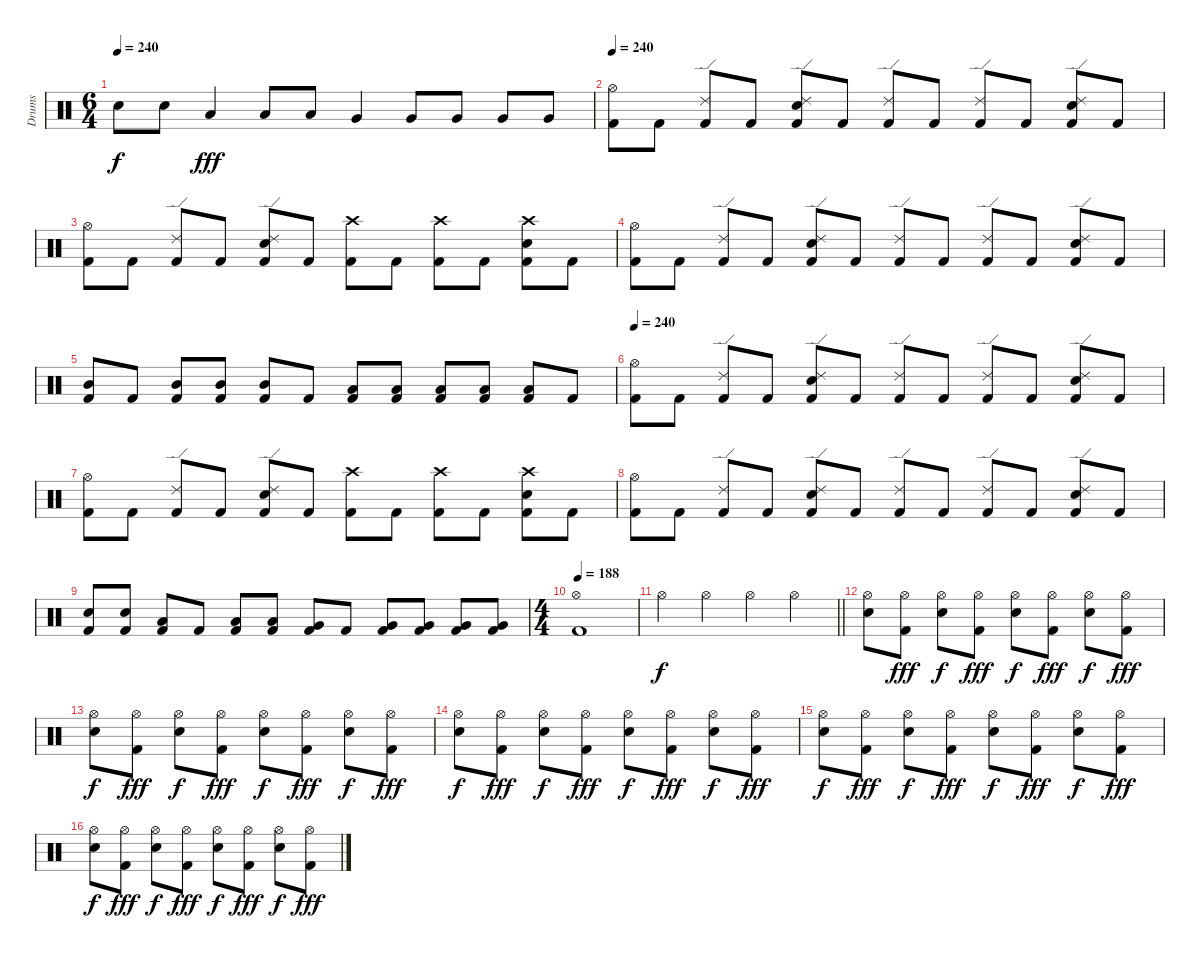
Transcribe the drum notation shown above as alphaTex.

\track ("Drums" "Drums") {instrument percussion}
\staff {score}
\articulation defaults
\ts (6 4)
\tempo 240
\clef neutral
\ks c "Electric Snare (hit)".8{dy f} "Electric Snare (hit)".8 "Low Tom (hit)".4{dy fff} "Low Tom (hit)".8 "Low Tom (hit)".8 "Very Low Tom (hit)".4 "Very Low Tom (hit)".8 "Very Low Tom (hit)".8 "Very Low Tom (hit)".8 "Very Low Tom (hit)".8
|
\tempo 240
("Hi-Hat (open)" "Kick (hit) 2").8 "Kick (hit) 2".8 ("Ride (edge) 2" "Kick (hit) 2").8 "Kick (hit) 2".8 ("Ride (edge) 2" "Electric Snare (hit)" "Kick (hit) 2").8 "Kick (hit) 2".8 ("Ride (edge) 2" "Kick (hit) 2").8 "Kick (hit) 2".8 ("Ride (edge) 2" "Kick (hit) 2").8 "Kick (hit) 2".8 ("Ride (edge) 2" "Electric Snare (hit)" "Kick (hit) 2").8 "Kick (hit) 2".8 |
("Hi-Hat (open)" "Kick (hit) 2").8 "Kick (hit) 2".8 ("Ride (edge) 2" "Kick (hit) 2").8 "Kick (hit) 2".8 ("Ride (edge) 2" "Electric Snare (hit)" "Kick (hit) 2").8 "Kick (hit) 2".8 ("Crash high (hit)" "Kick (hit) 2").8 "Kick (hit) 2".8 ("Crash high (hit)" "Kick (hit) 2").8 "Kick (hit) 2".8 ("Crash high (hit)" "Electric Snare (hit)" "Kick (hit) 2").8 "Kick (hit) 2".8 |
("Hi-Hat (open)" "Kick (hit) 2").8 "Kick (hit) 2".8 ("Ride (edge) 2" "Kick (hit) 2").8 "Kick (hit) 2".8 ("Ride (edge) 2" "Electric Snare (hit)" "Kick (hit) 2").8 "Kick (hit) 2".8 ("Ride (edge) 2" "Kick (hit) 2").8 "Kick (hit) 2".8 ("Ride (edge) 2" "Kick (hit) 2").8 "Kick (hit) 2".8 ("Ride (edge) 2" "Electric Snare (hit)" "Kick (hit) 2").8 "Kick (hit) 2".8 |
("Mid Tom (hit)" "Kick (hit) 2").8 "Kick (hit) 2".8 ("Mid Tom (hit)" "Kick (hit) 2").8 ("Mid Tom (hit)" "Kick (hit) 2").8 ("Mid Tom (hit)" "Kick (hit) 2").8 "Kick (hit) 2".8 ("Low Tom (hit)" "Kick (hit) 2").8 ("Low Tom (hit)" "Kick (hit) 2").8 ("Low Tom (hit)" "Kick (hit) 2").8 ("Low Tom (hit)" "Kick (hit) 2").8 ("Low Tom (hit)" "Kick (hit) 2").8 "Kick (hit) 2".8 |
\tempo 240
("Hi-Hat (open)" "Kick (hit) 2").8 "Kick (hit) 2".8 ("Ride (edge) 2" "Kick (hit) 2").8 "Kick (hit) 2".8 ("Ride (edge) 2" "Electric Snare (hit)" "Kick (hit) 2").8 "Kick (hit) 2".8 ("Ride (edge) 2" "Kick (hit) 2").8 "Kick (hit) 2".8 ("Ride (edge) 2" "Kick (hit) 2").8 "Kick (hit) 2".8 ("Ride (edge) 2" "Electric Snare (hit)" "Kick (hit) 2").8 "Kick (hit) 2".8 |
("Hi-Hat (open)" "Kick (hit) 2").8 "Kick (hit) 2".8 ("Ride (edge) 2" "Kick (hit) 2").8 "Kick (hit) 2".8 ("Ride (edge) 2" "Electric Snare (hit)" "Kick (hit) 2").8 "Kick (hit) 2".8 ("Crash high (hit)" "Kick (hit) 2").8 "Kick (hit) 2".8 ("Crash high (hit)" "Kick (hit) 2").8 "Kick (hit) 2".8 ("Crash high (hit)" "Electric Snare (hit)" "Kick (hit) 2").8 "Kick (hit) 2".8 |
("Hi-Hat (open)" "Kick (hit) 2").8 "Kick (hit) 2".8 ("Ride (edge) 2" "Kick (hit) 2").8 "Kick (hit) 2".8 ("Ride (edge) 2" "Electric Snare (hit)" "Kick (hit) 2").8 "Kick (hit) 2".8 ("Ride (edge) 2" "Kick (hit) 2").8 "Kick (hit) 2".8 ("Ride (edge) 2" "Kick (hit) 2").8 "Kick (hit) 2".8 ("Ride (edge) 2" "Electric Snare (hit)" "Kick (hit) 2").8 "Kick (hit) 2".8 |
("Electric Snare (hit)" "Kick (hit) 2").8 ("Electric Snare (hit)" "Kick (hit) 2").8 ("Low Tom (hit)" "Kick (hit) 2").8 "Kick (hit) 2".8 ("Low Tom (hit)" "Kick (hit) 2").8 ("Low Tom (hit)" "Kick (hit) 2").8 ("Very Low Tom (hit)" "Kick (hit) 2").8 "Kick (hit) 2".8 ("Very Low Tom (hit)" "Kick (hit) 2").8 ("Very Low Tom (hit)" "Kick (hit) 2").8 ("Very Low Tom (hit)" "Kick (hit) 2").8 ("Very Low Tom (hit)" "Kick (hit) 2").8 |
\ts (4 4)
\tempo 188
("Hi-Hat (open)" "Kick (hit) 2").1 |
\barLineRight lightlight "Hi-Hat (open)".4{dy f} "Hi-Hat (open)".4 "Hi-Hat (open)".4 "Hi-Hat (open)".4
|
("Hi-Hat (open)" "Electric Snare (hit)").8 ("Hi-Hat (open)" "Kick (hit) 2").8{dy fff} ("Hi-Hat (open)" "Electric Snare (hit)").8{dy f} ("Hi-Hat (open)" "Kick (hit) 2").8{dy fff} ("Hi-Hat (open)" "Electric Snare (hit)").8{dy f} ("Hi-Hat (open)" "Kick (hit) 2").8{dy fff} ("Hi-Hat (open)" "Electric Snare (hit)").8{dy f} ("Hi-Hat (open)" "Kick (hit) 2").8{dy fff} |
("Hi-Hat (open)" "Electric Snare (hit)").8{dy f} ("Hi-Hat (open)" "Kick (hit) 2").8{dy fff} ("Hi-Hat (open)" "Electric Snare (hit)").8{dy f} ("Hi-Hat (open)" "Kick (hit) 2").8{dy fff} ("Hi-Hat (open)" "Electric Snare (hit)").8{dy f} ("Hi-Hat (open)" "Kick (hit) 2").8{dy fff} ("Hi-Hat (open)" "Electric Snare (hit)").8{dy f} ("Hi-Hat (open)" "Kick (hit) 2").8{dy fff} |
("Hi-Hat (open)" "Electric Snare (hit)").8{dy f} ("Hi-Hat (open)" "Kick (hit) 2").8{dy fff} ("Hi-Hat (open)" "Electric Snare (hit)").8{dy f} ("Hi-Hat (open)" "Kick (hit) 2").8{dy fff} ("Hi-Hat (open)" "Electric Snare (hit)").8{dy f} ("Hi-Hat (open)" "Kick (hit) 2").8{dy fff} ("Hi-Hat (open)" "Electric Snare (hit)").8{dy f} ("Hi-Hat (open)" "Kick (hit) 2").8{dy fff} |
("Hi-Hat (open)" "Electric Snare (hit)").8{dy f} ("Hi-Hat (open)" "Kick (hit) 2").8{dy fff} ("Hi-Hat (open)" "Electric Snare (hit)").8{dy f} ("Hi-Hat (open)" "Kick (hit) 2").8{dy fff} ("Hi-Hat (open)" "Electric Snare (hit)").8{dy f} ("Hi-Hat (open)" "Kick (hit) 2").8{dy fff} ("Hi-Hat (open)" "Electric Snare (hit)").8{dy f} ("Hi-Hat (open)" "Kick (hit) 2").8{dy fff} |
("Hi-Hat (open)" "Electric Snare (hit)").8{dy f} ("Hi-Hat (open)" "Kick (hit) 2").8{dy fff} ("Hi-Hat (open)" "Electric Snare (hit)").8{dy f} ("Hi-Hat (open)" "Kick (hit) 2").8{dy fff} ("Hi-Hat (open)" "Electric Snare (hit)").8{dy f} ("Hi-Hat (open)" "Kick (hit) 2").8{dy fff} ("Hi-Hat (open)" "Electric Snare (hit)").8{dy f} ("Hi-Hat (open)" "Kick (hit) 2").8{dy fff}
